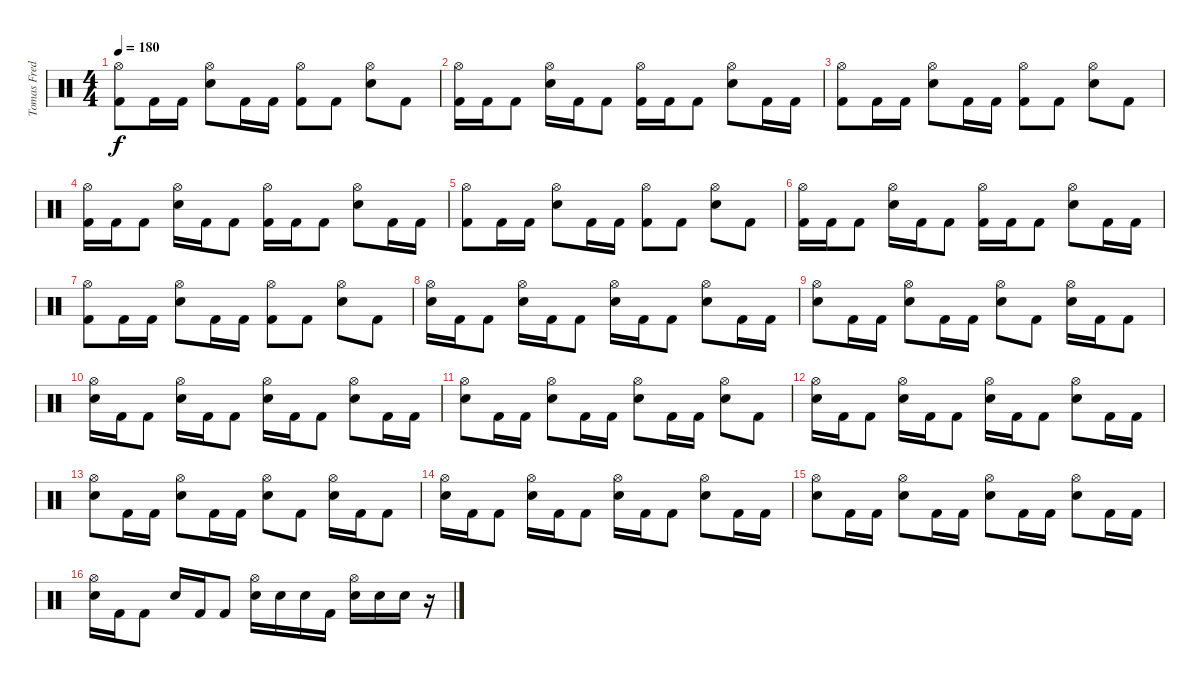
\track ("Tomas Fredén - drums  " "Tomas Fred") {instrument percussion}
\staff {score}
\articulation defaults
\ts (4 4)
\tempo 180
\clef neutral
\ks c
("Hi-Hat (open)" "Kick (hit) 2").8{dy f} "Kick (hit) 2".16 "Kick (hit) 2".16 ("Hi-Hat (open)" "Snare (hit) 2").8 "Kick (hit) 2".16 "Kick (hit) 2".16 ("Hi-Hat (open)" "Kick (hit) 2").8 "Kick (hit) 2".8 ("Hi-Hat (open)" "Snare (hit) 2").8 "Kick (hit) 2".8 |
("Hi-Hat (open)" "Kick (hit) 2").16 "Kick (hit) 2".16 "Kick (hit) 2".8 ("Hi-Hat (open)" "Snare (hit) 2").16 "Kick (hit) 2".16 "Kick (hit) 2".8 ("Hi-Hat (open)" "Kick (hit) 2").16 "Kick (hit) 2".16 "Kick (hit) 2".8 ("Hi-Hat (open)" "Snare (hit) 2").8 "Kick (hit) 2".16 "Kick (hit) 2".16 |
("Hi-Hat (open)" "Kick (hit) 2").8 "Kick (hit) 2".16 "Kick (hit) 2".16 ("Hi-Hat (open)" "Snare (hit) 2").8 "Kick (hit) 2".16 "Kick (hit) 2".16 ("Hi-Hat (open)" "Kick (hit) 2").8 "Kick (hit) 2".8 ("Hi-Hat (open)" "Snare (hit) 2").8 "Kick (hit) 2".8 |
("Hi-Hat (open)" "Kick (hit) 2").16 "Kick (hit) 2".16 "Kick (hit) 2".8 ("Hi-Hat (open)" "Snare (hit) 2").16 "Kick (hit) 2".16 "Kick (hit) 2".8 ("Hi-Hat (open)" "Kick (hit) 2").16 "Kick (hit) 2".16 "Kick (hit) 2".8 ("Hi-Hat (open)" "Snare (hit) 2").8 "Kick (hit) 2".16 "Kick (hit) 2".16 |
("Hi-Hat (open)" "Kick (hit) 2").8 "Kick (hit) 2".16 "Kick (hit) 2".16 ("Hi-Hat (open)" "Snare (hit) 2").8 "Kick (hit) 2".16 "Kick (hit) 2".16 ("Hi-Hat (open)" "Kick (hit) 2").8 "Kick (hit) 2".8 ("Hi-Hat (open)" "Snare (hit) 2").8 "Kick (hit) 2".8 |
("Hi-Hat (open)" "Kick (hit) 2").16 "Kick (hit) 2".16 "Kick (hit) 2".8 ("Hi-Hat (open)" "Snare (hit) 2").16 "Kick (hit) 2".16 "Kick (hit) 2".8 ("Hi-Hat (open)" "Kick (hit) 2").16 "Kick (hit) 2".16 "Kick (hit) 2".8 ("Hi-Hat (open)" "Snare (hit) 2").8 "Kick (hit) 2".16 "Kick (hit) 2".16 |
("Hi-Hat (open)" "Kick (hit) 2").8 "Kick (hit) 2".16 "Kick (hit) 2".16 ("Hi-Hat (open)" "Snare (hit) 2").8 "Kick (hit) 2".16 "Kick (hit) 2".16 ("Hi-Hat (open)" "Kick (hit) 2").8 "Kick (hit) 2".8 ("Hi-Hat (open)" "Snare (hit) 2").8 "Kick (hit) 2".8 |
("Hi-Hat (open)" "Snare (hit) 2").16 "Kick (hit) 2".16 "Kick (hit) 2".8 ("Hi-Hat (open)" "Snare (hit) 2").16 "Kick (hit) 2".16 "Kick (hit) 2".8 ("Hi-Hat (open)" "Snare (hit) 2").16 "Kick (hit) 2".16 "Kick (hit) 2".8 ("Hi-Hat (open)" "Snare (hit) 2").8 "Kick (hit) 2".16 "Kick (hit) 2".16 |
("Hi-Hat (open)" "Snare (hit) 2").8 "Kick (hit) 2".16 "Kick (hit) 2".16 ("Hi-Hat (open)" "Snare (hit) 2").8 "Kick (hit) 2".16 "Kick (hit) 2".16 ("Hi-Hat (open)" "Snare (hit) 2").8 "Kick (hit) 2".8 ("Hi-Hat (open)" "Snare (hit) 2").16 "Kick (hit) 2".16 "Kick (hit) 2".8 |
("Hi-Hat (open)" "Snare (hit) 2").16 "Kick (hit) 2".16 "Kick (hit) 2".8 ("Hi-Hat (open)" "Snare (hit) 2").16 "Kick (hit) 2".16 "Kick (hit) 2".8 ("Hi-Hat (open)" "Snare (hit) 2").16 "Kick (hit) 2".16 "Kick (hit) 2".8 ("Hi-Hat (open)" "Snare (hit) 2").8 "Kick (hit) 2".16 "Kick (hit) 2".16 |
("Hi-Hat (open)" "Snare (hit) 2").8 "Kick (hit) 2".16 "Kick (hit) 2".16 ("Hi-Hat (open)" "Snare (hit) 2").8 "Kick (hit) 2".16 "Kick (hit) 2".16 ("Hi-Hat (open)" "Snare (hit) 2").8 "Kick (hit) 2".16 "Kick (hit) 2".16 ("Hi-Hat (open)" "Snare (hit) 2").8 "Kick (hit) 2".8 |
("Hi-Hat (open)" "Snare (hit) 2").16 "Kick (hit) 2".16 "Kick (hit) 2".8 ("Hi-Hat (open)" "Snare (hit) 2").16 "Kick (hit) 2".16 "Kick (hit) 2".8 ("Hi-Hat (open)" "Snare (hit) 2").16 "Kick (hit) 2".16 "Kick (hit) 2".8 ("Hi-Hat (open)" "Snare (hit) 2").8 "Kick (hit) 2".16 "Kick (hit) 2".16 |
("Hi-Hat (open)" "Snare (hit) 2").8 "Kick (hit) 2".16 "Kick (hit) 2".16 ("Hi-Hat (open)" "Snare (hit) 2").8 "Kick (hit) 2".16 "Kick (hit) 2".16 ("Hi-Hat (open)" "Snare (hit) 2").8 "Kick (hit) 2".8 ("Hi-Hat (open)" "Snare (hit) 2").16 "Kick (hit) 2".16 "Kick (hit) 2".8 |
("Hi-Hat (open)" "Snare (hit) 2").16 "Kick (hit) 2".16 "Kick (hit) 2".8 ("Hi-Hat (open)" "Snare (hit) 2").16 "Kick (hit) 2".16 "Kick (hit) 2".8 ("Hi-Hat (open)" "Snare (hit) 2").16 "Kick (hit) 2".16 "Kick (hit) 2".8 ("Hi-Hat (open)" "Snare (hit) 2").8 "Kick (hit) 2".16 "Kick (hit) 2".16 |
("Hi-Hat (open)" "Snare (hit) 2").8 "Kick (hit) 2".16 "Kick (hit) 2".16 ("Hi-Hat (open)" "Snare (hit) 2").8 "Kick (hit) 2".16 "Kick (hit) 2".16 ("Hi-Hat (open)" "Snare (hit) 2").8 "Kick (hit) 2".16 "Kick (hit) 2".16 ("Hi-Hat (open)" "Snare (hit) 2").8 "Kick (hit) 2".16 "Kick (hit) 2".16 |
("Hi-Hat (open)" "Snare (hit) 2").16 "Kick (hit) 2".16 "Kick (hit) 2".8 "Snare (hit) 2".16 "Kick (hit) 2".16 "Kick (hit) 2".8 ("Hi-Hat (open)" "Snare (hit) 2").16 "Snare (hit) 2".16 "Snare (hit) 2".16 "Kick (hit) 2".16 ("Hi-Hat (open)" "Snare (hit) 2").16 "Snare (hit) 2".16 "Snare (hit) 2".16 r.16
